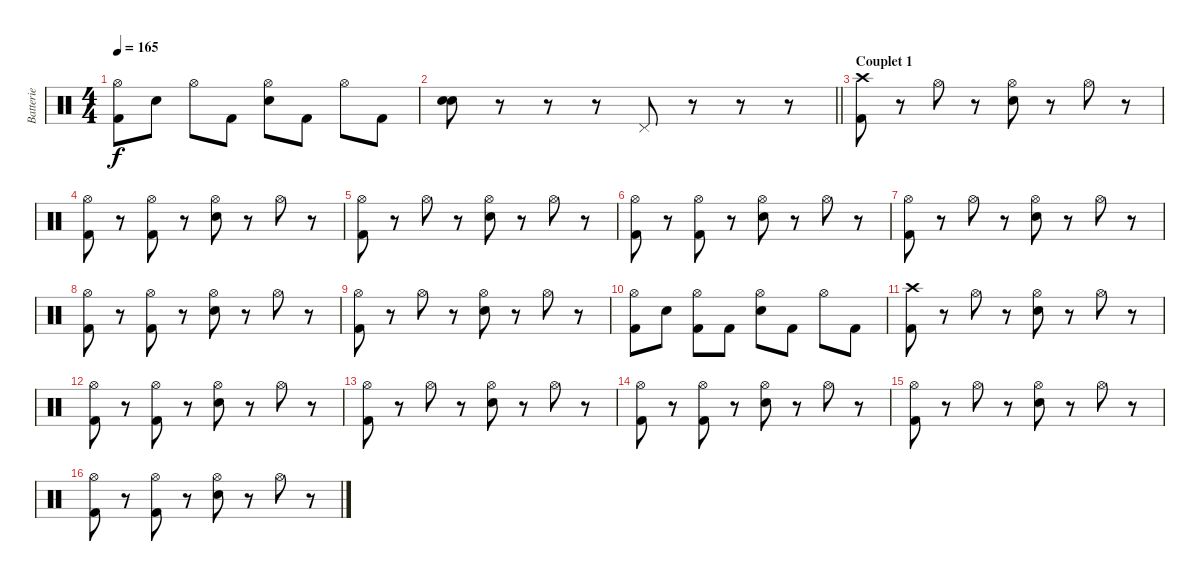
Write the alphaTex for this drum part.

\track ("Batterie" "Batterie") {instrument percussion}
\staff {score}
\articulation defaults
\ts (4 4)
\tempo 165
\clef neutral
\ks c
("Hi-Hat (open)" "Kick (hit) 2").8{dy f} "Electric Snare (hit)".8 "Hi-Hat (open)".8 "Kick (hit) 2".8 ("Hi-Hat (open)" "Electric Snare (hit)").8 "Kick (hit) 2".8 "Hi-Hat (open)".8 "Kick (hit) 2".8 |
\barLineRight lightlight
("Electric Snare (hit)" "Electric Snare (hit)").8{bu 120} r.8 r.8 r.8 "Pedal Hi-Hat (hit)".8 r.8 r.8 r.8 |
\section ("" "Couplet 1")
("Crash high (hit)" "Kick (hit) 2").8 r.8 "Hi-Hat (open)".8 r.8 ("Hi-Hat (open)" "Electric Snare (hit)").8 r.8 "Hi-Hat (open)".8 r.8 |
("Hi-Hat (open)" "Kick (hit) 2").8 r.8 ("Hi-Hat (open)" "Kick (hit) 2").8 r.8 ("Hi-Hat (open)" "Electric Snare (hit)").8 r.8 "Hi-Hat (open)".8 r.8 |
("Hi-Hat (open)" "Kick (hit) 2").8 r.8 "Hi-Hat (open)".8 r.8 ("Hi-Hat (open)" "Electric Snare (hit)").8 r.8 "Hi-Hat (open)".8 r.8 |
("Hi-Hat (open)" "Kick (hit) 2").8 r.8 ("Hi-Hat (open)" "Kick (hit) 2").8 r.8 ("Hi-Hat (open)" "Electric Snare (hit)").8 r.8 "Hi-Hat (open)".8 r.8 |
("Hi-Hat (open)" "Kick (hit) 2").8 r.8 "Hi-Hat (open)".8 r.8 ("Hi-Hat (open)" "Electric Snare (hit)").8 r.8 "Hi-Hat (open)".8 r.8 |
("Hi-Hat (open)" "Kick (hit) 2").8 r.8 ("Hi-Hat (open)" "Kick (hit) 2").8 r.8 ("Hi-Hat (open)" "Electric Snare (hit)").8 r.8 "Hi-Hat (open)".8 r.8 |
("Hi-Hat (open)" "Kick (hit) 2").8 r.8 "Hi-Hat (open)".8 r.8 ("Hi-Hat (open)" "Electric Snare (hit)").8 r.8 "Hi-Hat (open)".8 r.8 |
("Hi-Hat (open)" "Kick (hit) 2").8 "Electric Snare (hit)".8 ("Hi-Hat (open)" "Kick (hit) 2").8 "Kick (hit) 2".8 ("Hi-Hat (open)" "Electric Snare (hit)").8 "Kick (hit) 2".8 "Hi-Hat (open)".8 "Kick (hit) 2".8 |
("Crash high (hit)" "Kick (hit) 2").8 r.8 "Hi-Hat (open)".8 r.8 ("Hi-Hat (open)" "Electric Snare (hit)").8 r.8 "Hi-Hat (open)".8 r.8 |
("Hi-Hat (open)" "Kick (hit) 2").8 r.8 ("Hi-Hat (open)" "Kick (hit) 2").8 r.8 ("Hi-Hat (open)" "Electric Snare (hit)").8 r.8 "Hi-Hat (open)".8 r.8 |
("Hi-Hat (open)" "Kick (hit) 2").8 r.8 "Hi-Hat (open)".8 r.8 ("Hi-Hat (open)" "Electric Snare (hit)").8 r.8 "Hi-Hat (open)".8 r.8 |
("Hi-Hat (open)" "Kick (hit) 2").8 r.8 ("Hi-Hat (open)" "Kick (hit) 2").8 r.8 ("Hi-Hat (open)" "Electric Snare (hit)").8 r.8 "Hi-Hat (open)".8 r.8 |
("Hi-Hat (open)" "Kick (hit) 2").8 r.8 "Hi-Hat (open)".8 r.8 ("Hi-Hat (open)" "Electric Snare (hit)").8 r.8 "Hi-Hat (open)".8 r.8 |
("Hi-Hat (open)" "Kick (hit) 2").8 r.8 ("Hi-Hat (open)" "Kick (hit) 2").8 r.8 ("Hi-Hat (open)" "Electric Snare (hit)").8 r.8 "Hi-Hat (open)".8 r.8
